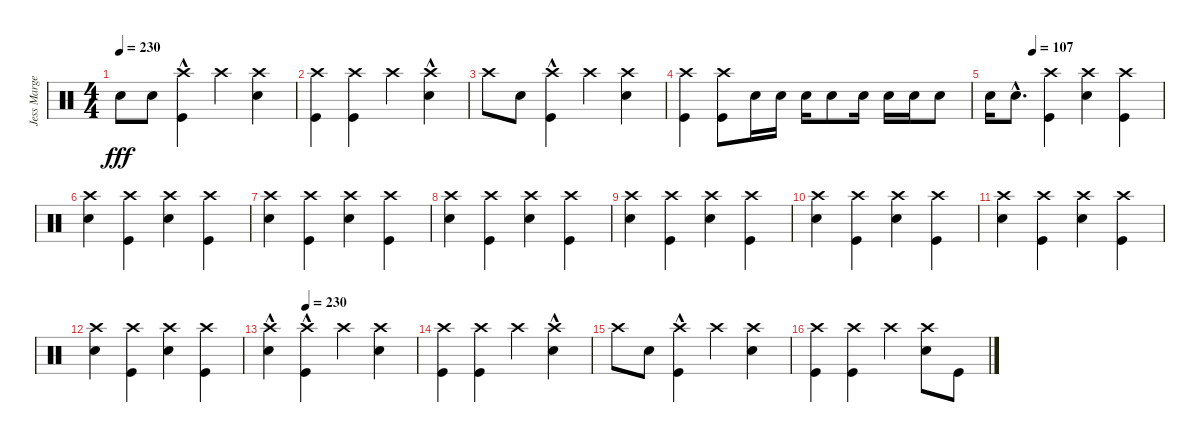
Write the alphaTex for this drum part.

\track ("Jess Margera (drums)" "Jess Marge") {instrument percussion}
\staff {score}
\articulation defaults
\ts (4 4)
\tempo 230
\clef neutral
\ks c "Snare (hit) 2".8{dy fff} "Snare (hit) 2".8
("Kick (hit)"{hac} "Crash high (hit)").4 "Crash high (hit)".4 ("Snare (hit) 2" "Crash high (hit)").4 |
("Kick (hit)" "Crash high (hit)").4 ("Kick (hit)" "Crash high (hit)").4 "Crash high (hit)".4 ("Snare (hit) 2"{hac} "Crash high (hit)").4 |
"Crash high (hit)".8 "Snare (hit) 2".8 ("Kick (hit)"{hac} "Crash high (hit)").4 "Crash high (hit)".4 ("Snare (hit) 2" "Crash high (hit)").4 |
("Kick (hit)" "Crash high (hit)").4 ("Kick (hit)" "Crash high (hit)").8 "Snare (hit) 2".16 "Snare (hit) 2".16 "Snare (hit) 2".16 "Snare (hit) 2".8 "Snare (hit) 2".16 "Snare (hit) 2".16 "Snare (hit) 2".16 "Snare (hit) 2".8 |
\tempo (107 0.25)
"Snare (hit) 2".16 "Snare (hit) 2"{hac}.8{d} ("Kick (hit)" "Crash high (hit)").4 ("Snare (hit) 2" "Crash high (hit)").4 ("Kick (hit)" "Crash high (hit)").4 |
("Snare (hit) 2" "Crash high (hit)").4 ("Kick (hit)" "Crash high (hit)").4 ("Snare (hit) 2" "Crash high (hit)").4 ("Kick (hit)" "Crash high (hit)").4 |
("Snare (hit) 2" "Crash high (hit)").4 ("Kick (hit)" "Crash high (hit)").4 ("Snare (hit) 2" "Crash high (hit)").4 ("Kick (hit)" "Crash high (hit)").4 |
("Snare (hit) 2" "Crash high (hit)").4 ("Kick (hit)" "Crash high (hit)").4 ("Snare (hit) 2" "Crash high (hit)").4 ("Kick (hit)" "Crash high (hit)").4 |
("Snare (hit) 2" "Crash high (hit)").4 ("Kick (hit)" "Crash high (hit)").4 ("Snare (hit) 2" "Crash high (hit)").4 ("Kick (hit)" "Crash high (hit)").4 |
("Snare (hit) 2" "Crash high (hit)").4 ("Kick (hit)" "Crash high (hit)").4 ("Snare (hit) 2" "Crash high (hit)").4 ("Kick (hit)" "Crash high (hit)").4 |
("Snare (hit) 2" "Crash high (hit)").4 ("Kick (hit)" "Crash high (hit)").4 ("Snare (hit) 2" "Crash high (hit)").4 ("Kick (hit)" "Crash high (hit)").4 |
("Snare (hit) 2" "Crash high (hit)").4 ("Kick (hit)" "Crash high (hit)").4 ("Snare (hit) 2" "Crash high (hit)").4 ("Kick (hit)" "Crash high (hit)").4 |
\tempo (230 0.25)
("Snare (hit) 2"{hac} "Crash high (hit)").4 ("Kick (hit)"{hac} "Crash high (hit)").4 "Crash high (hit)".4 ("Snare (hit) 2" "Crash high (hit)").4 |
("Kick (hit)" "Crash high (hit)").4 ("Kick (hit)" "Crash high (hit)").4 "Crash high (hit)".4 ("Snare (hit) 2"{hac} "Crash high (hit)").4 |
"Crash high (hit)".8 "Snare (hit) 2".8 ("Kick (hit)"{hac} "Crash high (hit)").4 "Crash high (hit)".4 ("Snare (hit) 2" "Crash high (hit)").4 |
("Kick (hit)" "Crash high (hit)").4 ("Kick (hit)" "Crash high (hit)").4 "Crash high (hit)".4 ("Snare (hit) 2" "Crash high (hit)").8 "Kick (hit)".8
